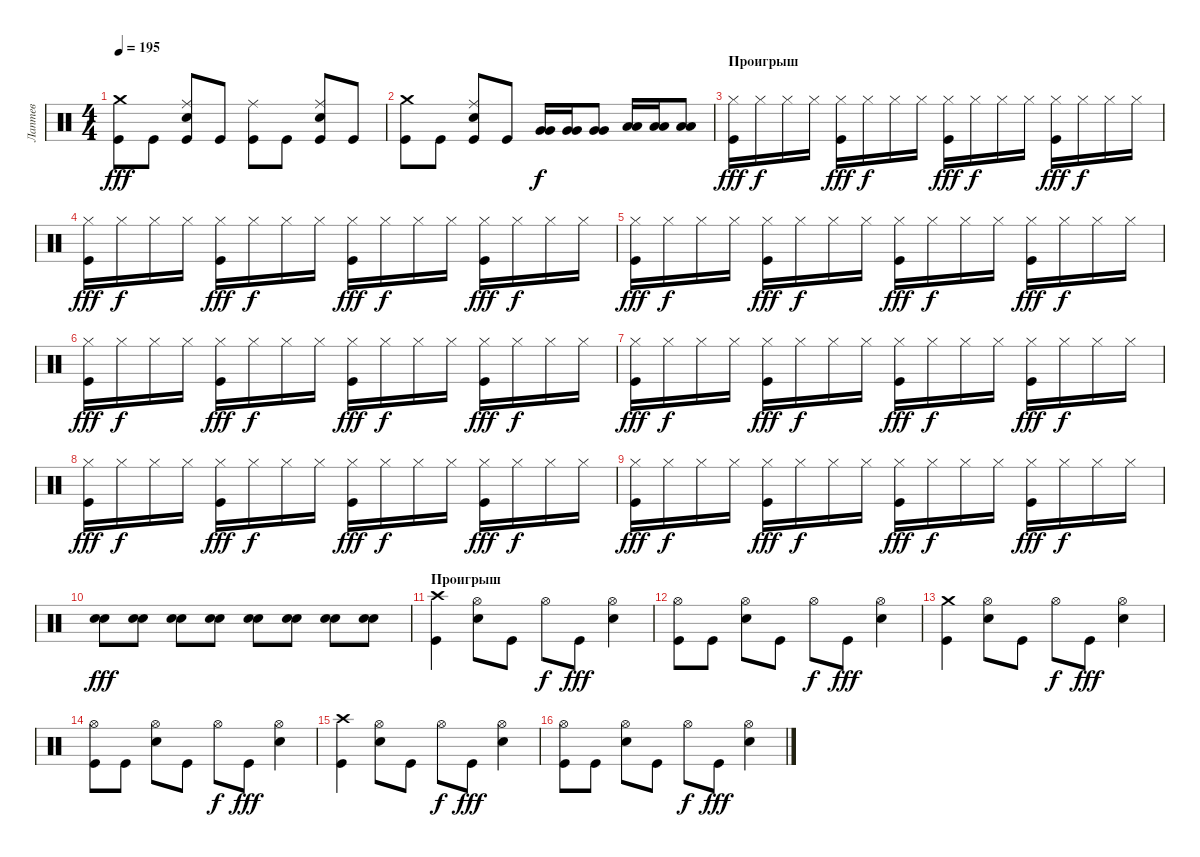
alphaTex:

\track ("Лаптев" "Лаптев") {instrument percussion}
\staff {score}
\articulation defaults
\ts (4 4)
\tempo 195
\clef neutral
\ks c
("Crash medium (hit)" "Kick (hit)").8{dy fff} "Kick (hit)".8 ("Ride (middle)" "Electric Snare (hit)" "Kick (hit)").8 "Kick (hit)".8 ("Ride (middle)" "Kick (hit)").8 "Kick (hit)".8 ("Ride (middle)" "Electric Snare (hit)" "Kick (hit)").8 "Kick (hit)".8 |
("Crash medium (hit)" "Kick (hit)").8 "Kick (hit)".8 ("Ride (middle)" "Electric Snare (hit)" "Kick (hit)").8 "Kick (hit)".8 ("Very Low Tom (hit)" "Very Low Tom (hit)").16{dy f} ("Very Low Tom (hit)" "Very Low Tom (hit)").16 ("Very Low Tom (hit)" "Very Low Tom (hit)").8 ("Low Floor Tom (hit)" "Low Floor Tom (hit)").16 ("Low Floor Tom (hit)" "Low Floor Tom (hit)").16 ("Low Floor Tom (hit)" "Low Floor Tom (hit)").8 |
\section ("" "Проигрыш")
("Hi-Hat (closed)" "Kick (hit)").16{dy fff} "Hi-Hat (closed)".16{dy f} "Hi-Hat (closed)".16 "Hi-Hat (closed)".16 ("Hi-Hat (closed)" "Kick (hit)").16{dy fff} "Hi-Hat (closed)".16{dy f} "Hi-Hat (closed)".16 "Hi-Hat (closed)".16 ("Hi-Hat (closed)" "Kick (hit)").16{dy fff} "Hi-Hat (closed)".16{dy f} "Hi-Hat (closed)".16 "Hi-Hat (closed)".16 ("Hi-Hat (closed)" "Kick (hit)").16{dy fff} "Hi-Hat (closed)".16{dy f} "Hi-Hat (closed)".16 "Hi-Hat (closed)".16 |
("Hi-Hat (closed)" "Kick (hit)").16{dy fff} "Hi-Hat (closed)".16{dy f} "Hi-Hat (closed)".16 "Hi-Hat (closed)".16 ("Hi-Hat (closed)" "Kick (hit)").16{dy fff} "Hi-Hat (closed)".16{dy f} "Hi-Hat (closed)".16 "Hi-Hat (closed)".16 ("Hi-Hat (closed)" "Kick (hit)").16{dy fff} "Hi-Hat (closed)".16{dy f} "Hi-Hat (closed)".16 "Hi-Hat (closed)".16 ("Hi-Hat (closed)" "Kick (hit)").16{dy fff} "Hi-Hat (closed)".16{dy f} "Hi-Hat (closed)".16 "Hi-Hat (closed)".16 |
("Hi-Hat (closed)" "Kick (hit)").16{dy fff} "Hi-Hat (closed)".16{dy f} "Hi-Hat (closed)".16 "Hi-Hat (closed)".16 ("Hi-Hat (closed)" "Kick (hit)").16{dy fff} "Hi-Hat (closed)".16{dy f} "Hi-Hat (closed)".16 "Hi-Hat (closed)".16 ("Hi-Hat (closed)" "Kick (hit)").16{dy fff} "Hi-Hat (closed)".16{dy f} "Hi-Hat (closed)".16 "Hi-Hat (closed)".16 ("Hi-Hat (closed)" "Kick (hit)").16{dy fff} "Hi-Hat (closed)".16{dy f} "Hi-Hat (closed)".16 "Hi-Hat (closed)".16 |
("Hi-Hat (closed)" "Kick (hit)").16{dy fff} "Hi-Hat (closed)".16{dy f} "Hi-Hat (closed)".16 "Hi-Hat (closed)".16 ("Hi-Hat (closed)" "Kick (hit)").16{dy fff} "Hi-Hat (closed)".16{dy f} "Hi-Hat (closed)".16 "Hi-Hat (closed)".16 ("Hi-Hat (closed)" "Kick (hit)").16{dy fff} "Hi-Hat (closed)".16{dy f} "Hi-Hat (closed)".16 "Hi-Hat (closed)".16 ("Hi-Hat (closed)" "Kick (hit)").16{dy fff} "Hi-Hat (closed)".16{dy f} "Hi-Hat (closed)".16 "Hi-Hat (closed)".16 |
("Hi-Hat (closed)" "Kick (hit)").16{dy fff} "Hi-Hat (closed)".16{dy f} "Hi-Hat (closed)".16 "Hi-Hat (closed)".16 ("Hi-Hat (closed)" "Kick (hit)").16{dy fff} "Hi-Hat (closed)".16{dy f} "Hi-Hat (closed)".16 "Hi-Hat (closed)".16 ("Hi-Hat (closed)" "Kick (hit)").16{dy fff} "Hi-Hat (closed)".16{dy f} "Hi-Hat (closed)".16 "Hi-Hat (closed)".16 ("Hi-Hat (closed)" "Kick (hit)").16{dy fff} "Hi-Hat (closed)".16{dy f} "Hi-Hat (closed)".16 "Hi-Hat (closed)".16 |
("Hi-Hat (closed)" "Kick (hit)").16{dy fff} "Hi-Hat (closed)".16{dy f} "Hi-Hat (closed)".16 "Hi-Hat (closed)".16 ("Hi-Hat (closed)" "Kick (hit)").16{dy fff} "Hi-Hat (closed)".16{dy f} "Hi-Hat (closed)".16 "Hi-Hat (closed)".16 ("Hi-Hat (closed)" "Kick (hit)").16{dy fff} "Hi-Hat (closed)".16{dy f} "Hi-Hat (closed)".16 "Hi-Hat (closed)".16 ("Hi-Hat (closed)" "Kick (hit)").16{dy fff} "Hi-Hat (closed)".16{dy f} "Hi-Hat (closed)".16 "Hi-Hat (closed)".16 |
("Hi-Hat (closed)" "Kick (hit)").16{dy fff} "Hi-Hat (closed)".16{dy f} "Hi-Hat (closed)".16 "Hi-Hat (closed)".16 ("Hi-Hat (closed)" "Kick (hit)").16{dy fff} "Hi-Hat (closed)".16{dy f} "Hi-Hat (closed)".16 "Hi-Hat (closed)".16 ("Hi-Hat (closed)" "Kick (hit)").16{dy fff} "Hi-Hat (closed)".16{dy f} "Hi-Hat (closed)".16 "Hi-Hat (closed)".16 ("Hi-Hat (closed)" "Kick (hit)").16{dy fff} "Hi-Hat (closed)".16{dy f} "Hi-Hat (closed)".16 "Hi-Hat (closed)".16 |
("Electric Snare (hit)" "Electric Snare (hit)").8{dy fff} ("Electric Snare (hit)" "Electric Snare (hit)").8 ("Electric Snare (hit)" "Electric Snare (hit)").8 ("Electric Snare (hit)" "Electric Snare (hit)").8 ("Electric Snare (hit)" "Electric Snare (hit)").8 ("Electric Snare (hit)" "Electric Snare (hit)").8 ("Electric Snare (hit)" "Electric Snare (hit)").8 ("Electric Snare (hit)" "Electric Snare (hit)").8 |
\section ("" "Проигрыш")
("Crash high (hit)" "Kick (hit)").4 ("Hi-Hat (open)" "Electric Snare (hit)").8 "Kick (hit)".8 "Hi-Hat (open)".8{dy f} "Kick (hit)".8{dy fff} ("Hi-Hat (open)" "Electric Snare (hit)").4 |
("Hi-Hat (open)" "Kick (hit)").8 "Kick (hit)".8 ("Hi-Hat (open)" "Electric Snare (hit)").8 "Kick (hit)".8 "Hi-Hat (open)".8{dy f} "Kick (hit)".8{dy fff} ("Hi-Hat (open)" "Electric Snare (hit)").4 |
("Crash medium (hit)" "Kick (hit)").4 ("Hi-Hat (open)" "Electric Snare (hit)").8 "Kick (hit)".8 "Hi-Hat (open)".8{dy f} "Kick (hit)".8{dy fff} ("Hi-Hat (open)" "Electric Snare (hit)").4 |
("Hi-Hat (open)" "Kick (hit)").8 "Kick (hit)".8 ("Hi-Hat (open)" "Electric Snare (hit)").8 "Kick (hit)".8 "Hi-Hat (open)".8{dy f} "Kick (hit)".8{dy fff} ("Hi-Hat (open)" "Electric Snare (hit)").4 |
("Crash high (hit)" "Kick (hit)").4 ("Hi-Hat (open)" "Electric Snare (hit)").8 "Kick (hit)".8 "Hi-Hat (open)".8{dy f} "Kick (hit)".8{dy fff} ("Hi-Hat (open)" "Electric Snare (hit)").4 |
("Hi-Hat (open)" "Kick (hit)").8 "Kick (hit)".8 ("Hi-Hat (open)" "Electric Snare (hit)").8 "Kick (hit)".8 "Hi-Hat (open)".8{dy f} "Kick (hit)".8{dy fff} ("Hi-Hat (open)" "Electric Snare (hit)").4
